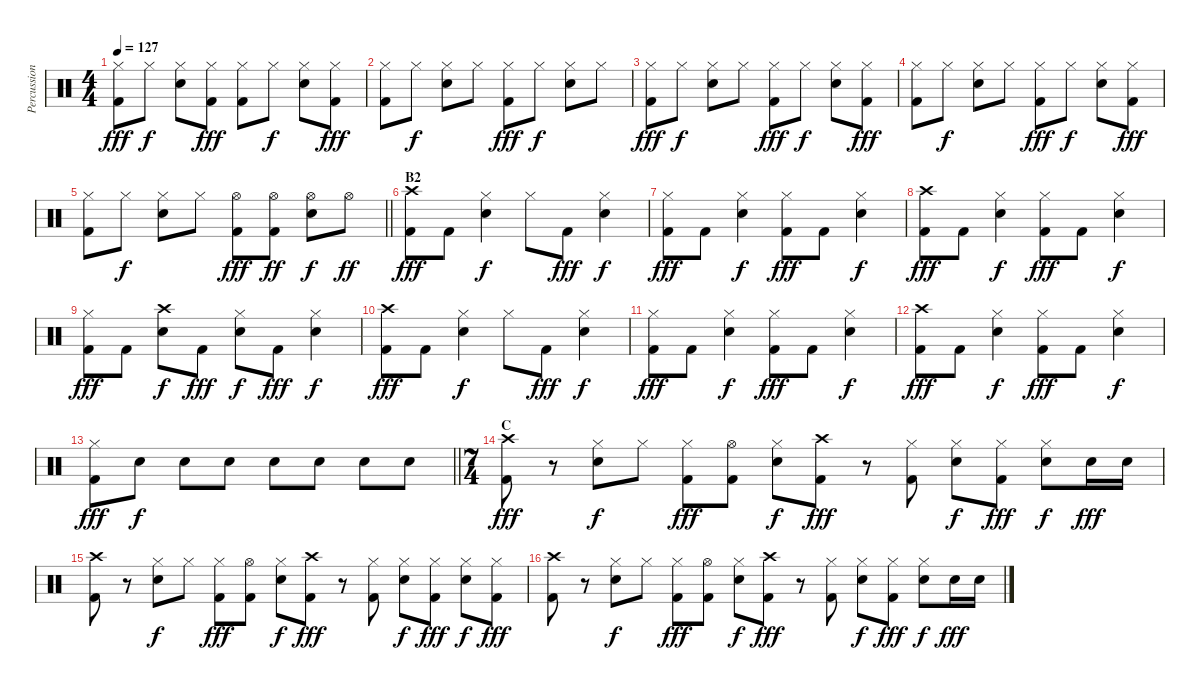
\track ("Percussion" "Percussion") {instrument percussion}
\staff {score}
\articulation defaults
\ts (4 4)
\tempo 127
\clef neutral
\ks c
("Hi-Hat (closed)" "Kick (hit) 2").8{dy fff} "Hi-Hat (closed)".8{dy f} ("Hi-Hat (closed)" "Electric Snare (hit)").8 ("Hi-Hat (closed)" "Kick (hit) 2").8{dy fff} ("Hi-Hat (closed)" "Kick (hit) 2").8 "Hi-Hat (closed)".8{dy f} ("Hi-Hat (closed)" "Electric Snare (hit)").8 ("Hi-Hat (closed)" "Kick (hit) 2").8{dy fff} |
("Hi-Hat (closed)" "Kick (hit) 2").8 "Hi-Hat (closed)".8{dy f} ("Hi-Hat (closed)" "Electric Snare (hit)").8 "Hi-Hat (closed)".8 ("Hi-Hat (closed)" "Kick (hit) 2").8{dy fff} "Hi-Hat (closed)".8{dy f} ("Hi-Hat (closed)" "Electric Snare (hit)").8 "Hi-Hat (closed)".8 |
("Hi-Hat (closed)" "Kick (hit) 2").8{dy fff} "Hi-Hat (closed)".8{dy f} ("Hi-Hat (closed)" "Electric Snare (hit)").8 "Hi-Hat (closed)".8 ("Hi-Hat (closed)" "Kick (hit) 2").8{dy fff} "Hi-Hat (closed)".8{dy f} ("Hi-Hat (closed)" "Electric Snare (hit)").8 ("Hi-Hat (closed)" "Kick (hit) 2").8{dy fff} |
("Hi-Hat (closed)" "Kick (hit) 2").8 "Hi-Hat (closed)".8{dy f} ("Hi-Hat (closed)" "Electric Snare (hit)").8 "Hi-Hat (closed)".8 ("Hi-Hat (closed)" "Kick (hit) 2").8{dy fff} "Hi-Hat (closed)".8{dy f} ("Hi-Hat (closed)" "Electric Snare (hit)").8 ("Hi-Hat (closed)" "Kick (hit) 2").8{dy fff} |
\barLineRight lightlight
("Hi-Hat (closed)" "Kick (hit) 2").8 "Hi-Hat (closed)".8{dy f} ("Hi-Hat (closed)" "Electric Snare (hit)").8 "Hi-Hat (closed)".8 ("Hi-Hat (open)" "Kick (hit) 2").8{dy fff} ("Hi-Hat (open)" "Kick (hit) 2").8{dy ff} ("Hi-Hat (open)" "Electric Snare (hit)").8{dy f} "Hi-Hat (open)".8{dy ff} |
\section ("" "B2")
("Crash high (hit)" "Kick (hit) 2").8{dy fff} "Kick (hit) 2".8 ("Hi-Hat (closed)" "Electric Snare (hit)").4{dy f} "Hi-Hat (closed)".8 "Kick (hit) 2".8{dy fff} ("Hi-Hat (closed)" "Electric Snare (hit)").4{dy f} |
("Hi-Hat (closed)" "Kick (hit) 2").8{dy fff} "Kick (hit) 2".8 ("Hi-Hat (closed)" "Electric Snare (hit)").4{dy f} ("Hi-Hat (closed)" "Kick (hit) 2").8{dy fff} "Kick (hit) 2".8 ("Hi-Hat (closed)" "Electric Snare (hit)").4{dy f} |
("Crash high (hit)" "Kick (hit) 2").8{dy fff} "Kick (hit) 2".8 ("Hi-Hat (closed)" "Electric Snare (hit)").4{dy f} ("Hi-Hat (closed)" "Kick (hit) 2").8{dy fff} "Kick (hit) 2".8 ("Hi-Hat (closed)" "Electric Snare (hit)").4{dy f} |
("Hi-Hat (closed)" "Kick (hit) 2").8{dy fff} "Kick (hit) 2".8 ("Crash high (hit)" "Electric Snare (hit)").8{dy f} "Kick (hit) 2".8{dy fff} ("Hi-Hat (closed)" "Electric Snare (hit)").8{dy f} "Kick (hit) 2".8{dy fff} ("Hi-Hat (closed)" "Electric Snare (hit)").4{dy f} |
("Crash high (hit)" "Kick (hit) 2").8{dy fff} "Kick (hit) 2".8 ("Hi-Hat (closed)" "Electric Snare (hit)").4{dy f} "Hi-Hat (closed)".8 "Kick (hit) 2".8{dy fff} ("Hi-Hat (closed)" "Electric Snare (hit)").4{dy f} |
("Hi-Hat (closed)" "Kick (hit) 2").8{dy fff} "Kick (hit) 2".8 ("Hi-Hat (closed)" "Electric Snare (hit)").4{dy f} ("Hi-Hat (closed)" "Kick (hit) 2").8{dy fff} "Kick (hit) 2".8 ("Hi-Hat (closed)" "Electric Snare (hit)").4{dy f} |
("Crash high (hit)" "Kick (hit) 2").8{dy fff} "Kick (hit) 2".8 ("Hi-Hat (closed)" "Electric Snare (hit)").4{dy f} ("Hi-Hat (closed)" "Kick (hit) 2").8{dy fff} "Kick (hit) 2".8 ("Hi-Hat (closed)" "Electric Snare (hit)").4{dy f} |
\barLineRight lightlight
("Hi-Hat (closed)" "Kick (hit) 2").8{dy fff} "Electric Snare (hit)".8{dy f} "Electric Snare (hit)".8 "Electric Snare (hit)".8 "Electric Snare (hit)".8 "Electric Snare (hit)".8 "Electric Snare (hit)".8 "Electric Snare (hit)".8 |
\ts (7 4)
\section ("" "C")
("Crash high (hit)" "Kick (hit) 2").8{dy fff} r.8 ("Hi-Hat (closed)" "Electric Snare (hit)").8{dy f} "Hi-Hat (closed)".8 ("Hi-Hat (closed)" "Kick (hit) 2").8{dy fff} ("Hi-Hat (open)" "Kick (hit) 2").8 ("Hi-Hat (closed)" "Electric Snare (hit)").8{dy f} ("Crash high (hit)" "Kick (hit) 2").8{dy fff} r.8 ("Hi-Hat (closed)" "Kick (hit) 2").8 ("Hi-Hat (closed)" "Electric Snare (hit)").8{dy f} ("Hi-Hat (closed)" "Kick (hit) 2").8{dy fff} ("Hi-Hat (closed)" "Electric Snare (hit)").8{dy f} "Electric Snare (hit)".16{dy fff} "Electric Snare (hit)".16 |
("Crash high (hit)" "Kick (hit) 2").8 r.8 ("Hi-Hat (closed)" "Electric Snare (hit)").8{dy f} "Hi-Hat (closed)".8 ("Hi-Hat (closed)" "Kick (hit) 2").8{dy fff} ("Hi-Hat (open)" "Kick (hit) 2").8 ("Hi-Hat (closed)" "Electric Snare (hit)").8{dy f} ("Crash high (hit)" "Kick (hit) 2").8{dy fff} r.8 ("Hi-Hat (closed)" "Kick (hit) 2").8 ("Hi-Hat (closed)" "Electric Snare (hit)").8{dy f} ("Hi-Hat (closed)" "Kick (hit) 2").8{dy fff} ("Hi-Hat (closed)" "Electric Snare (hit)").8{dy f} ("Hi-Hat (closed)" "Kick (hit) 2").8{dy fff} |
("Crash high (hit)" "Kick (hit) 2").8 r.8 ("Hi-Hat (closed)" "Electric Snare (hit)").8{dy f} "Hi-Hat (closed)".8 ("Hi-Hat (closed)" "Kick (hit) 2").8{dy fff} ("Hi-Hat (open)" "Kick (hit) 2").8 ("Hi-Hat (closed)" "Electric Snare (hit)").8{dy f} ("Crash high (hit)" "Kick (hit) 2").8{dy fff} r.8 ("Hi-Hat (closed)" "Kick (hit) 2").8 ("Hi-Hat (closed)" "Electric Snare (hit)").8{dy f} ("Hi-Hat (closed)" "Kick (hit) 2").8{dy fff} ("Hi-Hat (closed)" "Electric Snare (hit)").8{dy f} "Electric Snare (hit)".16{dy fff} "Electric Snare (hit)".16
